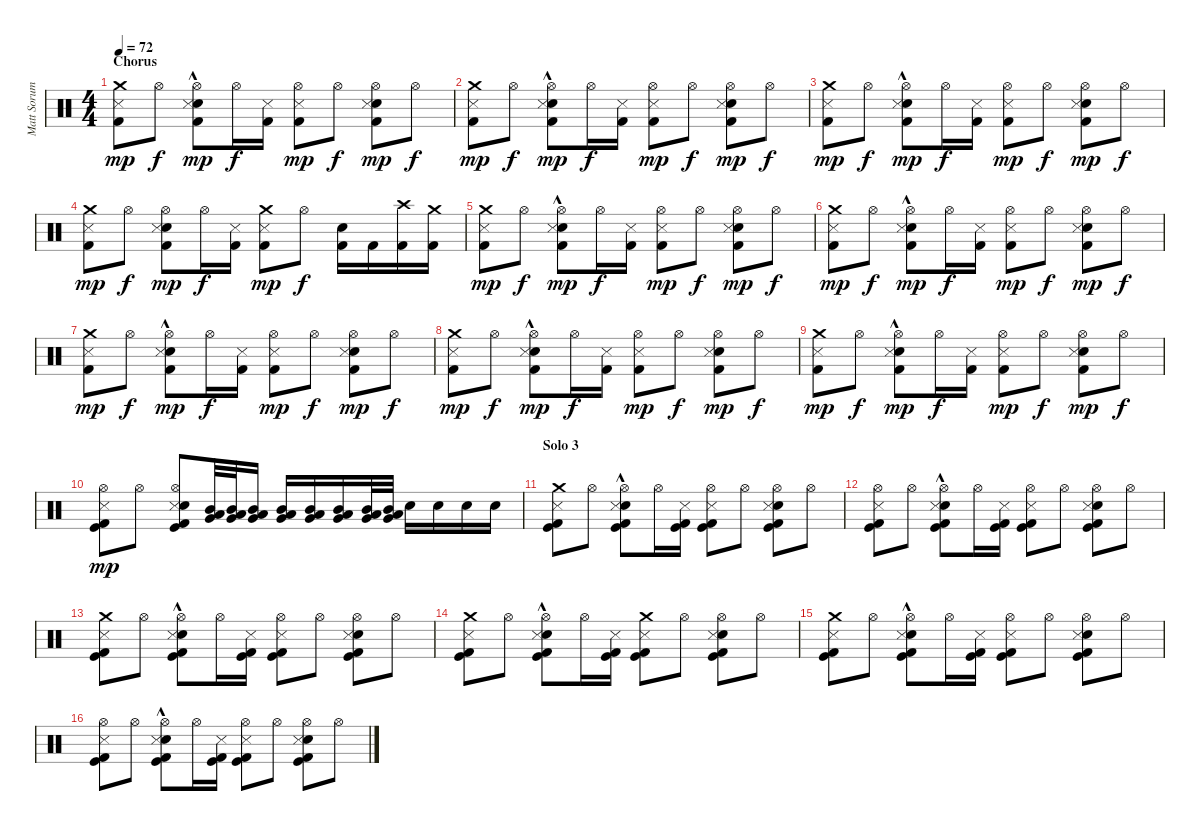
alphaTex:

\track ("Matt Sorum" "Matt Sorum") {instrument percussion}
\staff {score}
\articulation defaults
\ts (4 4)
\section ("" "Chorus")
\tempo 72
\clef neutral
\ks c
("Metronome (hit)" "Kick (hit) 2" "Crash medium (hit)").8{dy mp} "Hi-Hat (open)".8{dy f} ("Snare (hit) 2" "Hi-Hat (open)" "Metronome (hit)"{hac} "Kick (hit) 2").8{dy mp} "Hi-Hat (open)".16{dy f} ("Metronome (hit)" "Kick (hit) 2").16 ("Hi-Hat (open)" "Metronome (hit)" "Kick (hit) 2").8{dy mp} "Hi-Hat (open)".8{dy f} ("Snare (hit) 2" "Hi-Hat (open)" "Metronome (hit)" "Kick (hit) 2").8{dy mp} "Hi-Hat (open)".8{dy f} |
("Metronome (hit)" "Kick (hit) 2" "Crash medium (hit)").8{dy mp} "Hi-Hat (open)".8{dy f} ("Snare (hit) 2" "Hi-Hat (open)" "Metronome (hit)"{hac} "Kick (hit) 2").8{dy mp} "Hi-Hat (open)".16{dy f} ("Metronome (hit)" "Kick (hit) 2").16 ("Hi-Hat (open)" "Metronome (hit)" "Kick (hit) 2").8{dy mp} "Hi-Hat (open)".8{dy f} ("Snare (hit) 2" "Hi-Hat (open)" "Metronome (hit)" "Kick (hit) 2").8{dy mp} "Hi-Hat (open)".8{dy f} |
("Metronome (hit)" "Kick (hit) 2" "Crash medium (hit)").8{dy mp} "Hi-Hat (open)".8{dy f} ("Snare (hit) 2" "Hi-Hat (open)" "Metronome (hit)"{hac} "Kick (hit) 2").8{dy mp} "Hi-Hat (open)".16{dy f} ("Metronome (hit)" "Kick (hit) 2").16 ("Hi-Hat (open)" "Metronome (hit)" "Kick (hit) 2").8{dy mp} "Hi-Hat (open)".8{dy f} ("Snare (hit) 2" "Hi-Hat (open)" "Metronome (hit)" "Kick (hit) 2").8{dy mp} "Hi-Hat (open)".8{dy f} |
("Crash medium (hit)" "Metronome (hit)" "Kick (hit) 2").8{dy mp} "Hi-Hat (open)".8{dy f} ("Electric Snare (hit)" "Metronome (hit)" "Kick (hit) 2" "Hi-Hat (open)").8{dy mp} "Hi-Hat (open)".16{dy f} ("Metronome (hit)" "Kick (hit) 2").16 ("Crash medium (hit)" "Metronome (hit)" "Kick (hit) 2").8{dy mp} "Hi-Hat (open)".8{dy f} ("Electric Snare (hit)" "Kick (hit) 2").16 "Kick (hit) 2".16 ("Crash high (hit)" "Kick (hit) 2").16 ("Crash medium (hit)" "Kick (hit) 2").16 |
("Metronome (hit)" "Kick (hit) 2" "Crash medium (hit)").8{dy mp} "Hi-Hat (open)".8{dy f} ("Snare (hit) 2" "Hi-Hat (open)" "Metronome (hit)"{hac} "Kick (hit) 2").8{dy mp} "Hi-Hat (open)".16{dy f} ("Metronome (hit)" "Kick (hit) 2").16 ("Hi-Hat (open)" "Metronome (hit)" "Kick (hit) 2").8{dy mp} "Hi-Hat (open)".8{dy f} ("Snare (hit) 2" "Hi-Hat (open)" "Metronome (hit)" "Kick (hit) 2").8{dy mp} "Hi-Hat (open)".8{dy f} |
("Metronome (hit)" "Kick (hit) 2" "Crash medium (hit)").8{dy mp} "Hi-Hat (open)".8{dy f} ("Snare (hit) 2" "Hi-Hat (open)" "Metronome (hit)"{hac} "Kick (hit) 2").8{dy mp} "Hi-Hat (open)".16{dy f} ("Metronome (hit)" "Kick (hit) 2").16 ("Hi-Hat (open)" "Metronome (hit)" "Kick (hit) 2").8{dy mp} "Hi-Hat (open)".8{dy f} ("Snare (hit) 2" "Hi-Hat (open)" "Metronome (hit)" "Kick (hit) 2").8{dy mp} "Hi-Hat (open)".8{dy f} |
("Metronome (hit)" "Kick (hit) 2" "Crash medium (hit)").8{dy mp} "Hi-Hat (open)".8{dy f} ("Snare (hit) 2" "Hi-Hat (open)" "Metronome (hit)"{hac} "Kick (hit) 2").8{dy mp} "Hi-Hat (open)".16{dy f} ("Metronome (hit)" "Kick (hit) 2").16 ("Hi-Hat (open)" "Metronome (hit)" "Kick (hit) 2").8{dy mp} "Hi-Hat (open)".8{dy f} ("Snare (hit) 2" "Hi-Hat (open)" "Metronome (hit)" "Kick (hit) 2").8{dy mp} "Hi-Hat (open)".8{dy f} |
("Metronome (hit)" "Kick (hit) 2" "Crash medium (hit)").8{dy mp} "Hi-Hat (open)".8{dy f} ("Snare (hit) 2" "Hi-Hat (open)" "Metronome (hit)"{hac} "Kick (hit) 2").8{dy mp} "Hi-Hat (open)".16{dy f} ("Metronome (hit)" "Kick (hit) 2").16 ("Hi-Hat (open)" "Metronome (hit)" "Kick (hit) 2").8{dy mp} "Hi-Hat (open)".8{dy f} ("Snare (hit) 2" "Hi-Hat (open)" "Metronome (hit)" "Kick (hit) 2").8{dy mp} "Hi-Hat (open)".8{dy f} |
("Metronome (hit)" "Kick (hit) 2" "Crash medium (hit)").8{dy mp} "Hi-Hat (open)".8{dy f} ("Snare (hit) 2" "Hi-Hat (open)" "Metronome (hit)"{hac} "Kick (hit) 2").8{dy mp} "Hi-Hat (open)".16{dy f} ("Metronome (hit)" "Kick (hit) 2").16 ("Hi-Hat (open)" "Metronome (hit)" "Kick (hit) 2").8{dy mp} "Hi-Hat (open)".8{dy f} ("Snare (hit) 2" "Hi-Hat (open)" "Metronome (hit)" "Kick (hit) 2").8{dy mp} "Hi-Hat (open)".8{dy f} |
("Metronome (hit)" "Kick (hit)" "Kick (hit) 2" "Hi-Hat (open)").8{dy mp} "Hi-Hat (open)".8 ("Metronome (hit)" "Kick (hit)" "Kick (hit) 2" "Snare (hit) 2" "Hi-Hat (open)").8 ("Very Low Tom (hit)" "Low Tom (hit)" "Mid Tom (hit)").32 ("Very Low Tom (hit)" "Low Tom (hit)" "Mid Tom (hit)").32 ("Very Low Tom (hit)" "Low Tom (hit)" "Mid Tom (hit)").16 ("Very Low Tom (hit)" "Low Tom (hit)" "Mid Tom (hit)").16 ("Very Low Tom (hit)" "Low Tom (hit)" "Mid Tom (hit)").16 ("Very Low Tom (hit)" "Low Tom (hit)" "Mid Tom (hit)").16 ("Very Low Tom (hit)" "Low Tom (hit)" "Mid Tom (hit)").32 ("Very Low Tom (hit)" "Low Tom (hit)" "Mid Tom (hit)").32 "Snare (hit) 2".16 "Snare (hit) 2".16 "Snare (hit) 2".16 "Snare (hit) 2".16 |
\section ("" "Solo 3")
("Crash medium (hit)" "Metronome (hit)" "Kick (hit)" "Kick (hit) 2").8 "Hi-Hat (open)".8 ("Snare (hit) 2" "Hi-Hat (open)" "Metronome (hit)"{hac} "Kick (hit)"{hac} "Kick (hit) 2"{hac}).8 "Hi-Hat (open)".16 ("Metronome (hit)" "Kick (hit)" "Kick (hit) 2").16 ("Hi-Hat (open)" "Metronome (hit)" "Kick (hit)" "Kick (hit) 2").8 "Hi-Hat (open)".8 ("Snare (hit) 2" "Hi-Hat (open)" "Metronome (hit)" "Kick (hit)" "Kick (hit) 2").8 "Hi-Hat (open)".8 |
("Hi-Hat (open)" "Metronome (hit)" "Kick (hit)" "Kick (hit) 2").8 "Hi-Hat (open)".8 ("Snare (hit) 2" "Hi-Hat (open)" "Metronome (hit)"{hac} "Kick (hit)"{hac} "Kick (hit) 2"{hac}).8 "Hi-Hat (open)".16 ("Metronome (hit)" "Kick (hit)" "Kick (hit) 2").16 ("Hi-Hat (open)" "Metronome (hit)" "Kick (hit)" "Kick (hit) 2").8 "Hi-Hat (open)".8 ("Snare (hit) 2" "Hi-Hat (open)" "Metronome (hit)" "Kick (hit)" "Kick (hit) 2").8 "Hi-Hat (open)".8 |
("Crash medium (hit)" "Metronome (hit)" "Kick (hit)" "Kick (hit) 2").8 "Hi-Hat (open)".8 ("Snare (hit) 2" "Hi-Hat (open)" "Metronome (hit)"{hac} "Kick (hit)"{hac} "Kick (hit) 2"{hac}).8 "Hi-Hat (open)".16 ("Metronome (hit)" "Kick (hit)" "Kick (hit) 2").16 ("Hi-Hat (open)" "Metronome (hit)" "Kick (hit)" "Kick (hit) 2").8 "Hi-Hat (open)".8 ("Snare (hit) 2" "Hi-Hat (open)" "Metronome (hit)" "Kick (hit)" "Kick (hit) 2").8 "Hi-Hat (open)".8 |
("Crash medium (hit)" "Metronome (hit)" "Kick (hit)" "Kick (hit) 2").8 "Hi-Hat (open)".8 ("Snare (hit) 2" "Hi-Hat (open)" "Metronome (hit)"{hac} "Kick (hit)"{hac} "Kick (hit) 2"{hac}).8 "Hi-Hat (open)".16 ("Metronome (hit)" "Kick (hit)" "Kick (hit) 2").16 ("Crash medium (hit)" "Metronome (hit)" "Kick (hit)" "Kick (hit) 2").8 "Hi-Hat (open)".8 ("Snare (hit) 2" "Hi-Hat (open)" "Metronome (hit)" "Kick (hit)" "Kick (hit) 2").8 "Hi-Hat (open)".8 |
("Crash medium (hit)" "Metronome (hit)" "Kick (hit)" "Kick (hit) 2").8 "Hi-Hat (open)".8 ("Snare (hit) 2" "Hi-Hat (open)" "Metronome (hit)"{hac} "Kick (hit)"{hac} "Kick (hit) 2"{hac}).8 "Hi-Hat (open)".16 ("Metronome (hit)" "Kick (hit)" "Kick (hit) 2").16 ("Hi-Hat (open)" "Metronome (hit)" "Kick (hit)" "Kick (hit) 2").8 "Hi-Hat (open)".8 ("Snare (hit) 2" "Hi-Hat (open)" "Metronome (hit)" "Kick (hit)" "Kick (hit) 2").8 "Hi-Hat (open)".8 |
("Hi-Hat (open)" "Metronome (hit)" "Kick (hit)" "Kick (hit) 2").8 "Hi-Hat (open)".8 ("Snare (hit) 2" "Hi-Hat (open)" "Metronome (hit)"{hac} "Kick (hit)"{hac} "Kick (hit) 2"{hac}).8 "Hi-Hat (open)".16 ("Metronome (hit)" "Kick (hit)" "Kick (hit) 2").16 ("Hi-Hat (open)" "Metronome (hit)" "Kick (hit)" "Kick (hit) 2").8 "Hi-Hat (open)".8 ("Snare (hit) 2" "Hi-Hat (open)" "Metronome (hit)" "Kick (hit)" "Kick (hit) 2").8 "Hi-Hat (open)".8
